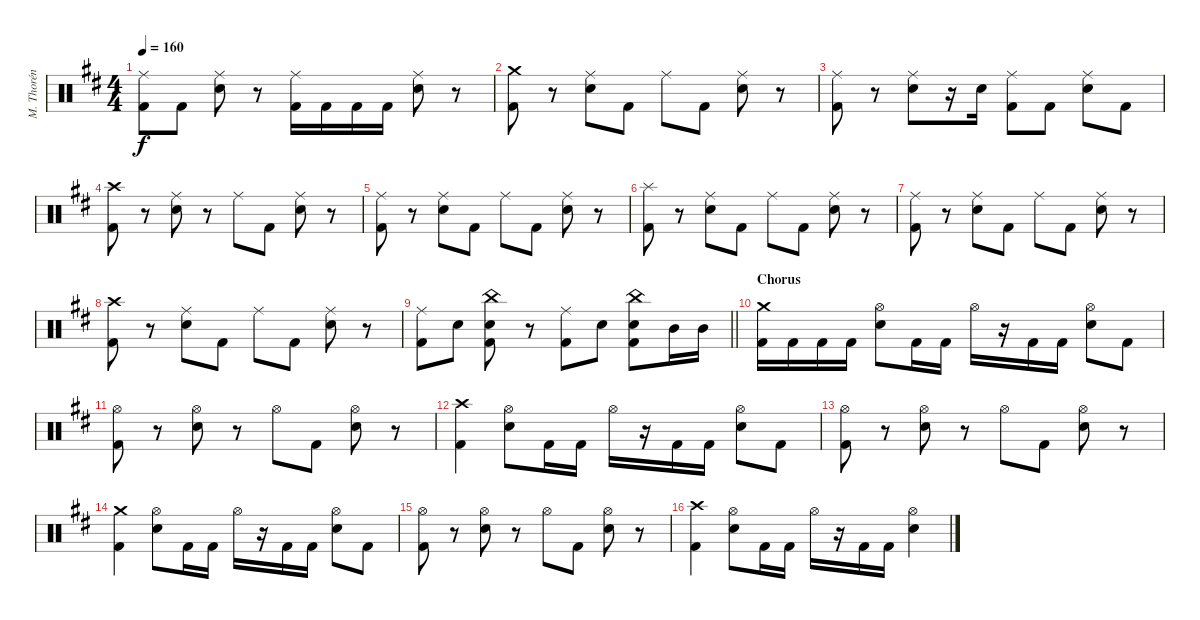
\track ("M. Thorén (Drums)" "M. Thorén ") {instrument percussion}
\staff {score}
\articulation defaults
\ts (4 4)
\tempo 160
\clef neutral
\ks bminor
("Ride (middle)" "Kick (hit) 2").8{dy f} "Kick (hit) 2".8 ("Ride (middle)" "Electric Snare (hit)").8 r.8 ("Ride (middle)" "Kick (hit) 2").16 "Kick (hit) 2".16 "Kick (hit) 2".16 "Kick (hit) 2".16 ("Ride (middle)" "Electric Snare (hit)").8 r.8 |
("Crash medium (hit)" "Kick (hit) 2").8 r.8 ("Ride (middle)" "Electric Snare (hit)").8 "Kick (hit) 2".8 "Ride (middle)".8 "Kick (hit) 2".8 ("Ride (middle)" "Electric Snare (hit)").8 r.8 |
("Ride (middle)" "Kick (hit) 2").8 r.8 ("Ride (middle)" "Electric Snare (hit)").8 r.16 "Electric Snare (hit)".16 ("Ride (middle)" "Kick (hit) 2").8 "Kick (hit) 2".8 ("Ride (middle)" "Electric Snare (hit)").8 "Kick (hit) 2".8 |
("Crash high (hit)" "Kick (hit) 2").8 r.8 ("Ride (middle)" "Electric Snare (hit)").8 r.8 "Ride (middle)".8 "Kick (hit) 2".8 ("Ride (middle)" "Electric Snare (hit)").8 r.8 |
("Ride (middle)" "Kick (hit) 2").8 r.8 ("Ride (middle)" "Electric Snare (hit)").8 "Kick (hit) 2".8 "Ride (middle)".8 "Kick (hit) 2".8 ("Ride (middle)" "Electric Snare (hit)").8 r.8 |
("Splash (hit)" "Kick (hit) 2").8 r.8 ("Ride (middle)" "Electric Snare (hit)").8 "Kick (hit) 2".8 "Ride (middle)".8 "Kick (hit) 2".8 ("Ride (middle)" "Electric Snare (hit)").8 r.8 |
("Ride (middle)" "Kick (hit) 2").8 r.8 ("Ride (middle)" "Electric Snare (hit)").8 "Kick (hit) 2".8 "Ride (middle)".8 "Kick (hit) 2".8 ("Ride (middle)" "Electric Snare (hit)").8 r.8 |
("Crash high (hit)" "Kick (hit) 2").8 r.8 ("Ride (middle)" "Electric Snare (hit)").8 "Kick (hit) 2".8 "Ride (middle)".8 "Kick (hit) 2".8 ("Ride (middle)" "Electric Snare (hit)").8 r.8 |
\barLineRight lightlight
("Ride (middle)" "Kick (hit) 2").8 "Electric Snare (hit)".8 ("China (hit)" "Electric Snare (hit)" "Kick (hit) 2").8 r.8 ("Ride (middle)" "Kick (hit) 2").8 "Electric Snare (hit)".8 ("China (hit)" "Electric Snare (hit)" "Kick (hit) 2").8 "Mid Tom (hit)".16 "Mid Tom (hit)".16 |
\section ("" "Chorus")
("Crash medium (hit)" "Kick (hit) 2").16 "Kick (hit) 2".16 "Kick (hit) 2".16 "Kick (hit) 2".16 ("Hi-Hat (open)" "Electric Snare (hit)").8 "Kick (hit) 2".16 "Kick (hit) 2".16 "Hi-Hat (open)".16 r.16 "Kick (hit) 2".16 "Kick (hit) 2".16 ("Hi-Hat (open)" "Electric Snare (hit)").8 "Kick (hit) 2".8 |
("Hi-Hat (open)" "Kick (hit) 2").8 r.8 ("Hi-Hat (open)" "Electric Snare (hit)").8 r.8 "Hi-Hat (open)".8 "Kick (hit) 2".8 ("Hi-Hat (open)" "Electric Snare (hit)").8 r.8 |
("Crash high (hit)" "Kick (hit) 2").4 ("Hi-Hat (open)" "Electric Snare (hit)").8 "Kick (hit) 2".16 "Kick (hit) 2".16 "Hi-Hat (open)".16 r.16 "Kick (hit) 2".16 "Kick (hit) 2".16 ("Hi-Hat (open)" "Electric Snare (hit)").8 "Kick (hit) 2".8 |
("Hi-Hat (open)" "Kick (hit) 2").8 r.8 ("Hi-Hat (open)" "Electric Snare (hit)").8 r.8 "Hi-Hat (open)".8 "Kick (hit) 2".8 ("Hi-Hat (open)" "Electric Snare (hit)").8 r.8 |
("Crash medium (hit)" "Kick (hit) 2").4 ("Hi-Hat (open)" "Electric Snare (hit)").8 "Kick (hit) 2".16 "Kick (hit) 2".16 "Hi-Hat (open)".16 r.16 "Kick (hit) 2".16 "Kick (hit) 2".16 ("Hi-Hat (open)" "Electric Snare (hit)").8 "Kick (hit) 2".8 |
("Hi-Hat (open)" "Kick (hit) 2").8 r.8 ("Hi-Hat (open)" "Electric Snare (hit)").8 r.8 "Hi-Hat (open)".8 "Kick (hit) 2".8 ("Hi-Hat (open)" "Electric Snare (hit)").8 r.8 |
("Crash high (hit)" "Kick (hit) 2").4 ("Hi-Hat (open)" "Electric Snare (hit)").8 "Kick (hit) 2".16 "Kick (hit) 2".16 "Hi-Hat (open)".16 r.16 "Kick (hit) 2".16 "Kick (hit) 2".16 ("Hi-Hat (open)" "Electric Snare (hit)").4
